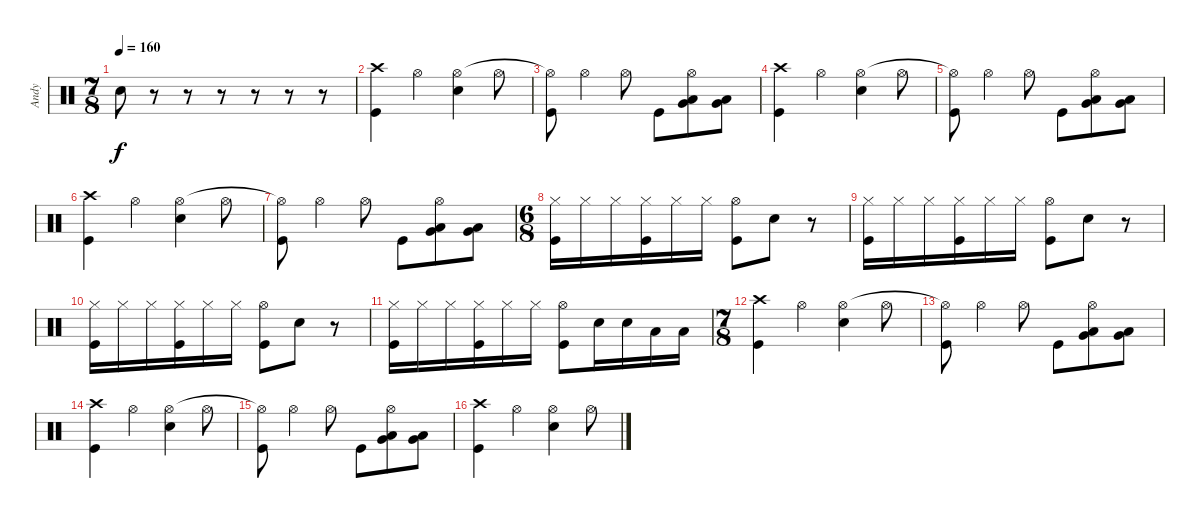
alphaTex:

\track ("Andy" "Andy") {instrument percussion}
\staff {score}
\articulation defaults
\ts (7 8)
\tempo 160
\clef neutral
\ks c "Snare (hit) 2".8{dy f}
r.8 r.8 r.8 r.8 r.8 r.8 |
("Kick (hit)" "Crash high (hit)").4 "Hi-Hat (open)".4 ("Snare (hit) 2" "Hi-Hat (open)").4 "Hi-Hat (open)".8 |
("Kick (hit)" "Hi-Hat (open)"{t}).8 "Hi-Hat (open)".4 "Hi-Hat (open)".8 "Kick (hit)".8 ("Very Low Tom (hit)" "Hi-Hat (open)" "Low Floor Tom (hit)").8 ("Very Low Tom (hit)" "Low Floor Tom (hit)").8 |
("Kick (hit)" "Crash high (hit)").4 "Hi-Hat (open)".4 ("Snare (hit) 2" "Hi-Hat (open)").4 "Hi-Hat (open)".8 |
("Kick (hit)" "Hi-Hat (open)"{t}).8 "Hi-Hat (open)".4 "Hi-Hat (open)".8 "Kick (hit)".8 ("Very Low Tom (hit)" "Hi-Hat (open)" "Low Floor Tom (hit)").8 ("Very Low Tom (hit)" "Low Floor Tom (hit)").8 |
("Kick (hit)" "Crash high (hit)").4 "Hi-Hat (open)".4 ("Snare (hit) 2" "Hi-Hat (open)").4 "Hi-Hat (open)".8 |
("Kick (hit)" "Hi-Hat (open)"{t}).8 "Hi-Hat (open)".4 "Hi-Hat (open)".8 "Kick (hit)".8 ("Very Low Tom (hit)" "Hi-Hat (open)" "Low Floor Tom (hit)").8 ("Very Low Tom (hit)" "Low Floor Tom (hit)").8 |
\ts (6 8)
("Hi-Hat (closed)" "Kick (hit)").16 "Hi-Hat (closed)".16 "Hi-Hat (closed)".16 ("Hi-Hat (closed)" "Kick (hit)").16 "Hi-Hat (closed)".16 "Hi-Hat (closed)".16 ("Hi-Hat (open)" "Kick (hit)").8 "Snare (hit) 2".8 r.8 |
("Hi-Hat (closed)" "Kick (hit)").16 "Hi-Hat (closed)".16 "Hi-Hat (closed)".16 ("Hi-Hat (closed)" "Kick (hit)").16 "Hi-Hat (closed)".16 "Hi-Hat (closed)".16 ("Hi-Hat (open)" "Kick (hit)").8 "Snare (hit) 2".8 r.8 |
("Hi-Hat (closed)" "Kick (hit)").16 "Hi-Hat (closed)".16 "Hi-Hat (closed)".16 ("Hi-Hat (closed)" "Kick (hit)").16 "Hi-Hat (closed)".16 "Hi-Hat (closed)".16 ("Hi-Hat (open)" "Kick (hit)").8 "Snare (hit) 2".8 r.8 |
("Hi-Hat (closed)" "Kick (hit)").16 "Hi-Hat (closed)".16 "Hi-Hat (closed)".16 ("Hi-Hat (closed)" "Kick (hit)").16 "Hi-Hat (closed)".16 "Hi-Hat (closed)".16 ("Hi-Hat (open)" "Kick (hit)").8 "Snare (hit) 2".16 "Snare (hit) 2".16 "Low Floor Tom (hit)".16 "Low Floor Tom (hit)".16 |
\ts (7 8)
("Kick (hit)" "Crash high (hit)").4 "Hi-Hat (open)".4 ("Snare (hit) 2" "Hi-Hat (open)").4 "Hi-Hat (open)".8 |
("Kick (hit)" "Hi-Hat (open)"{t}).8 "Hi-Hat (open)".4 "Hi-Hat (open)".8 "Kick (hit)".8 ("Very Low Tom (hit)" "Hi-Hat (open)" "Low Floor Tom (hit)").8 ("Very Low Tom (hit)" "Low Floor Tom (hit)").8 |
("Kick (hit)" "Crash high (hit)").4 "Hi-Hat (open)".4 ("Snare (hit) 2" "Hi-Hat (open)").4 "Hi-Hat (open)".8 |
("Kick (hit)" "Hi-Hat (open)"{t}).8 "Hi-Hat (open)".4 "Hi-Hat (open)".8 "Kick (hit)".8 ("Very Low Tom (hit)" "Hi-Hat (open)" "Low Floor Tom (hit)").8 ("Very Low Tom (hit)" "Low Floor Tom (hit)").8 |
("Kick (hit)" "Crash high (hit)").4 "Hi-Hat (open)".4 ("Snare (hit) 2" "Hi-Hat (open)").4 "Hi-Hat (open)".8
